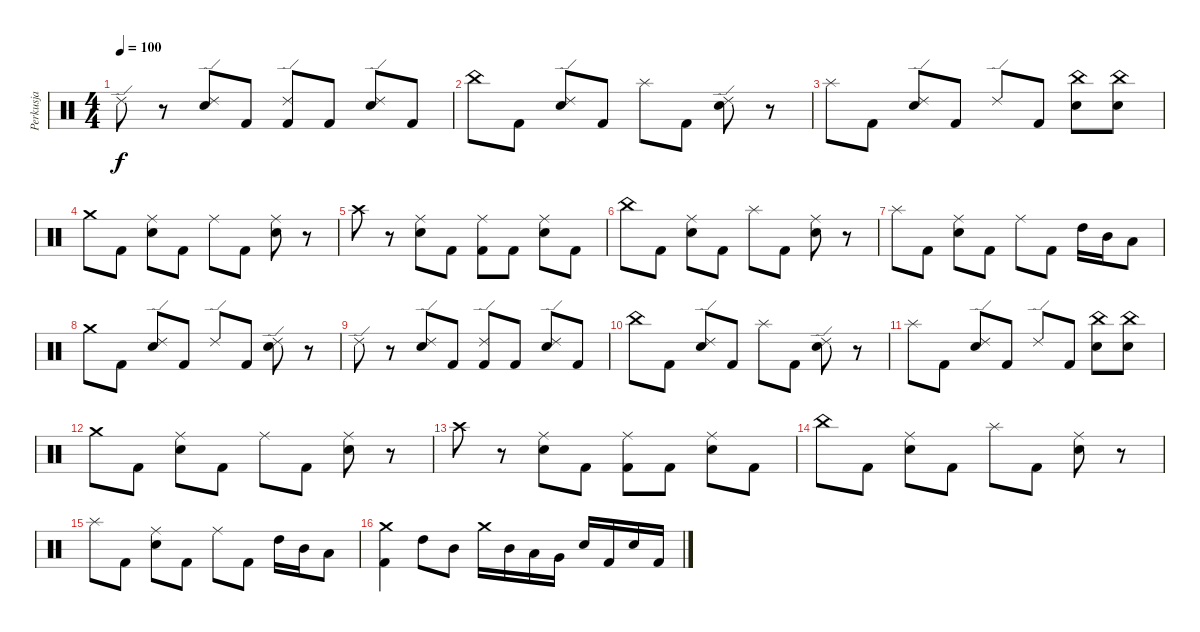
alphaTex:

\track ("Perkusja" "Perkusja") {instrument percussion}
\staff {score}
\articulation defaults
\ts (4 4)
\tempo 100
\clef neutral
\ks c "Ride (edge) 2".8{dy f}
r.8 ("Ride (edge) 2" "Snare (hit) 2").8 "Kick (hit) 2".8 ("Ride (edge) 2" "Kick (hit) 2").8 "Kick (hit) 2".8 ("Ride (edge) 2" "Snare (hit) 2").8 "Kick (hit) 2".8 |
"China (hit)".8 "Kick (hit) 2".8 ("Ride (edge) 2" "Snare (hit) 2").8 "Kick (hit) 2".8 "Splash (hit)".8 "Kick (hit) 2".8 ("Ride (edge) 2" "Snare (hit) 2").8 r.8 |
"Splash (hit)".8 "Kick (hit) 2".8 ("Ride (edge) 2" "Snare (hit) 2").8 "Kick (hit) 2".8 "Ride (edge) 2".8 "Kick (hit) 2".8 ("China (hit)" "Snare (hit) 2").8 ("China (hit)" "Snare (hit) 2").8 |
"Crash medium (hit)".8 "Kick (hit) 2".8 ("Ride (middle)" "Snare (hit) 2").8 "Kick (hit) 2".8 "Ride (middle)".8 "Kick (hit) 2".8 ("Ride (middle)" "Snare (hit) 2").8 r.8 |
"Crash high (hit)".8 r.8 ("Ride (middle)" "Snare (hit) 2").8 "Kick (hit) 2".8 ("Ride (middle)" "Kick (hit) 2").8 "Kick (hit) 2".8 ("Ride (middle)" "Snare (hit) 2").8 "Kick (hit) 2".8 |
"China (hit)".8 "Kick (hit) 2".8 ("Ride (middle)" "Snare (hit) 2").8 "Kick (hit) 2".8 "Splash (hit)".8 "Kick (hit) 2".8 ("Ride (middle)" "Snare (hit) 2").8 r.8 |
"Splash (hit)".8 "Kick (hit) 2".8 ("Ride (middle)" "Snare (hit) 2").8 "Kick (hit) 2".8 "Ride (middle)".8 "Kick (hit) 2".8 "High Tom (hit)".16 "Mid Tom (hit)".16 "Low Tom (hit)".8 |
"Crash medium (hit)".8 "Kick (hit) 2".8 ("Ride (edge) 2" "Snare (hit) 2").8 "Kick (hit) 2".8 "Ride (edge) 2".8 "Kick (hit) 2".8 ("Ride (edge) 2" "Snare (hit) 2").8 r.8 |
"Ride (edge) 2".8 r.8 ("Ride (edge) 2" "Snare (hit) 2").8 "Kick (hit) 2".8 ("Ride (edge) 2" "Kick (hit) 2").8 "Kick (hit) 2".8 ("Ride (edge) 2" "Snare (hit) 2").8 "Kick (hit) 2".8 |
"China (hit)".8 "Kick (hit) 2".8 ("Ride (edge) 2" "Snare (hit) 2").8 "Kick (hit) 2".8 "Splash (hit)".8 "Kick (hit) 2".8 ("Ride (edge) 2" "Snare (hit) 2").8 r.8 |
"Splash (hit)".8 "Kick (hit) 2".8 ("Ride (edge) 2" "Snare (hit) 2").8 "Kick (hit) 2".8 "Ride (edge) 2".8 "Kick (hit) 2".8 ("China (hit)" "Snare (hit) 2").8 ("China (hit)" "Snare (hit) 2").8 |
"Crash medium (hit)".8 "Kick (hit) 2".8 ("Ride (middle)" "Snare (hit) 2").8 "Kick (hit) 2".8 "Ride (middle)".8 "Kick (hit) 2".8 ("Ride (middle)" "Snare (hit) 2").8 r.8 |
"Crash high (hit)".8 r.8 ("Ride (middle)" "Snare (hit) 2").8 "Kick (hit) 2".8 ("Ride (middle)" "Kick (hit) 2").8 "Kick (hit) 2".8 ("Ride (middle)" "Snare (hit) 2").8 "Kick (hit) 2".8 |
"China (hit)".8 "Kick (hit) 2".8 ("Ride (middle)" "Snare (hit) 2").8 "Kick (hit) 2".8 "Splash (hit)".8 "Kick (hit) 2".8 ("Ride (middle)" "Snare (hit) 2").8 r.8 |
"Splash (hit)".8 "Kick (hit) 2".8 ("Ride (middle)" "Snare (hit) 2").8 "Kick (hit) 2".8 "Ride (middle)".8 "Kick (hit) 2".8 "High Tom (hit)".16 "Mid Tom (hit)".16 "Low Tom (hit)".8 |
("Crash medium (hit)" "Kick (hit) 2").4 "High Tom (hit)".8 "Mid Tom (hit)".8 "Crash medium (hit)".16 "Mid Tom (hit)".16 "Low Tom (hit)".16 "Very Low Tom (hit)".16 "Snare (hit) 2".16 "Kick (hit) 2".16 "Snare (hit) 2".16 "Kick (hit) 2".16
